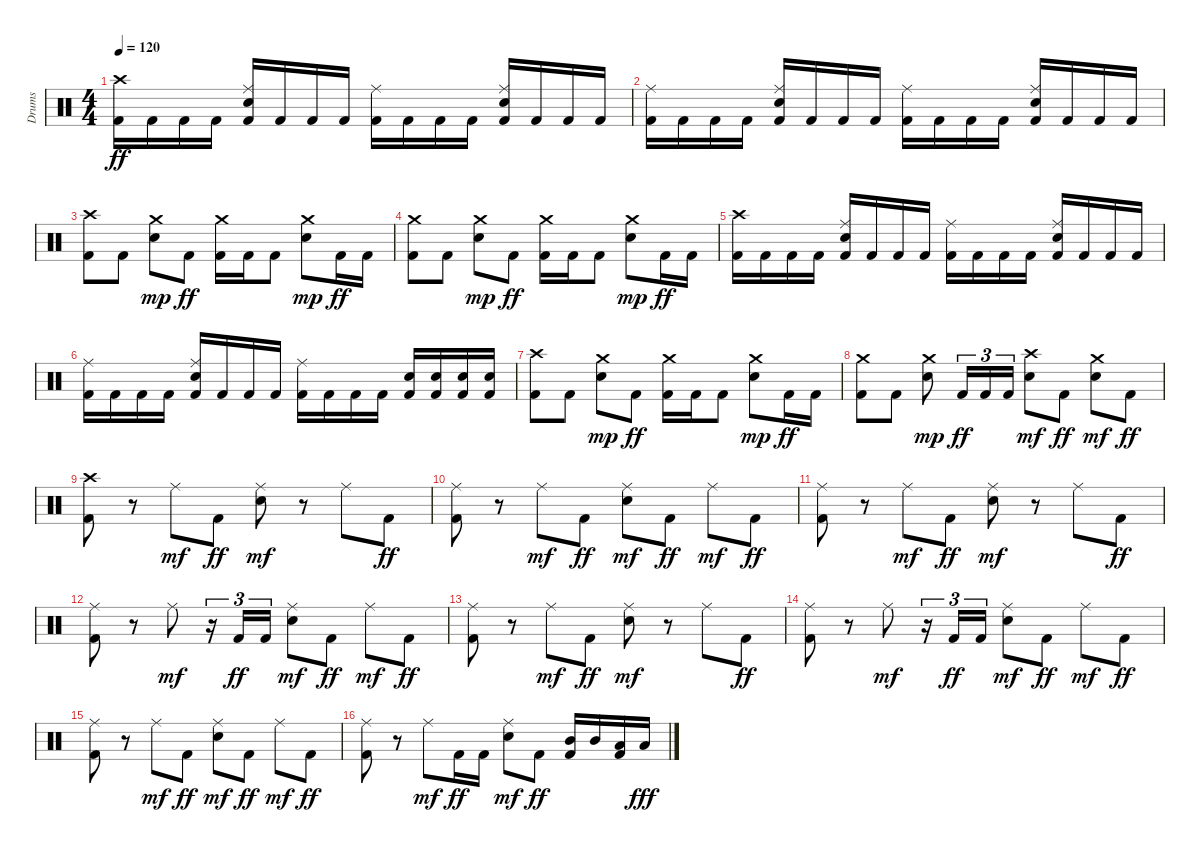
\track ("Drums" "Drums") {instrument percussion}
\staff {score}
\articulation defaults
\ts (4 4)
\tempo 120
\clef neutral
\ks c
("Crash high (hit)" "Kick (hit) 2").16{dy ff} "Kick (hit) 2".16 "Kick (hit) 2".16 "Kick (hit) 2".16 ("Ride (middle)" "Electric Snare (hit)" "Kick (hit) 2").16 "Kick (hit) 2".16 "Kick (hit) 2".16 "Kick (hit) 2".16 ("Ride (middle)" "Kick (hit) 2").16 "Kick (hit) 2".16 "Kick (hit) 2".16 "Kick (hit) 2".16 ("Ride (middle)" "Electric Snare (hit)" "Kick (hit) 2").16 "Kick (hit) 2".16 "Kick (hit) 2".16 "Kick (hit) 2".16 |
("Ride (middle)" "Kick (hit) 2").16 "Kick (hit) 2".16 "Kick (hit) 2".16 "Kick (hit) 2".16 ("Ride (middle)" "Electric Snare (hit)" "Kick (hit) 2").16 "Kick (hit) 2".16 "Kick (hit) 2".16 "Kick (hit) 2".16 ("Ride (middle)" "Kick (hit) 2").16 "Kick (hit) 2".16 "Kick (hit) 2".16 "Kick (hit) 2".16 ("Ride (middle)" "Electric Snare (hit)" "Kick (hit) 2").16 "Kick (hit) 2".16 "Kick (hit) 2".16 "Kick (hit) 2".16 |
("Crash high (hit)" "Kick (hit) 2").8 "Kick (hit) 2".8 ("Crash medium (hit)" "Electric Snare (hit)").8{dy mp} "Kick (hit) 2".8{dy ff} ("Crash medium (hit)" "Kick (hit) 2").16 "Kick (hit) 2".16 "Kick (hit) 2".8 ("Crash medium (hit)" "Electric Snare (hit)").8{dy mp} "Kick (hit) 2".16{dy ff} "Kick (hit) 2".16 |
("Crash medium (hit)" "Kick (hit) 2").8 "Kick (hit) 2".8 ("Crash medium (hit)" "Electric Snare (hit)").8{dy mp} "Kick (hit) 2".8{dy ff} ("Crash medium (hit)" "Kick (hit) 2").16 "Kick (hit) 2".16 "Kick (hit) 2".8 ("Crash medium (hit)" "Electric Snare (hit)").8{dy mp} "Kick (hit) 2".16{dy ff} "Kick (hit) 2".16 |
("Crash high (hit)" "Kick (hit) 2").16 "Kick (hit) 2".16 "Kick (hit) 2".16 "Kick (hit) 2".16 ("Ride (middle)" "Electric Snare (hit)" "Kick (hit) 2").16 "Kick (hit) 2".16 "Kick (hit) 2".16 "Kick (hit) 2".16 ("Ride (middle)" "Kick (hit) 2").16 "Kick (hit) 2".16 "Kick (hit) 2".16 "Kick (hit) 2".16 ("Ride (middle)" "Electric Snare (hit)" "Kick (hit) 2").16 "Kick (hit) 2".16 "Kick (hit) 2".16 "Kick (hit) 2".16 |
("Ride (middle)" "Kick (hit) 2").16 "Kick (hit) 2".16 "Kick (hit) 2".16 "Kick (hit) 2".16 ("Ride (middle)" "Electric Snare (hit)" "Kick (hit) 2").16 "Kick (hit) 2".16 "Kick (hit) 2".16 "Kick (hit) 2".16 ("Ride (middle)" "Kick (hit) 2").16 "Kick (hit) 2".16 "Kick (hit) 2".16 "Kick (hit) 2".16 ("Electric Snare (hit)" "Kick (hit) 2").16 ("Electric Snare (hit)" "Kick (hit) 2").16 ("Electric Snare (hit)" "Kick (hit) 2").16 ("Electric Snare (hit)" "Kick (hit) 2").16 |
("Crash high (hit)" "Kick (hit) 2").8 "Kick (hit) 2".8 ("Crash medium (hit)" "Electric Snare (hit)").8{dy mp} "Kick (hit) 2".8{dy ff} ("Crash medium (hit)" "Kick (hit) 2").16 "Kick (hit) 2".16 "Kick (hit) 2".8 ("Crash medium (hit)" "Electric Snare (hit)").8{dy mp} "Kick (hit) 2".16{dy ff} "Kick (hit) 2".16 |
("Crash medium (hit)" "Kick (hit) 2").8 "Kick (hit) 2".8 ("Crash medium (hit)" "Electric Snare (hit)").8{dy mp} "Kick (hit) 2".16{tu (3 2) dy ff} "Kick (hit) 2".16{tu (3 2)} "Kick (hit) 2".16{tu (3 2)} ("Crash high (hit)" "Electric Snare (hit)").8{dy mf} "Kick (hit) 2".8{dy ff} ("Crash medium (hit)" "Electric Snare (hit)").8{dy mf} "Kick (hit) 2".8{dy ff} |
\section ("" "")
("Crash high (hit)" "Kick (hit) 2").8 r.8 "Ride (middle)".8{dy mf} "Kick (hit) 2".8{dy ff} ("Ride (middle)" "Electric Snare (hit)").8{dy mf} r.8 "Ride (middle)".8 "Kick (hit) 2".8{dy ff} |
("Ride (middle)" "Kick (hit) 2").8 r.8 "Ride (middle)".8{dy mf} "Kick (hit) 2".8{dy ff} ("Ride (middle)" "Electric Snare (hit)").8{dy mf} "Kick (hit) 2".8{dy ff} "Ride (middle)".8{dy mf} "Kick (hit) 2".8{dy ff} |
("Ride (middle)" "Kick (hit) 2").8 r.8 "Ride (middle)".8{dy mf} "Kick (hit) 2".8{dy ff} ("Ride (middle)" "Electric Snare (hit)").8{dy mf} r.8 "Ride (middle)".8 "Kick (hit) 2".8{dy ff} |
("Ride (middle)" "Kick (hit) 2").8 r.8 "Ride (middle)".8{dy mf} r.16{tu (3 2)} "Kick (hit) 2".16{tu (3 2) dy ff} "Kick (hit) 2".16{tu (3 2)} ("Ride (middle)" "Electric Snare (hit)").8{dy mf} "Kick (hit) 2".8{dy ff} "Ride (middle)".8{dy mf} "Kick (hit) 2".8{dy ff} |
("Ride (middle)" "Kick (hit) 2").8 r.8 "Ride (middle)".8{dy mf} "Kick (hit) 2".8{dy ff} ("Ride (middle)" "Electric Snare (hit)").8{dy mf} r.8 "Ride (middle)".8 "Kick (hit) 2".8{dy ff} |
("Ride (middle)" "Kick (hit) 2").8 r.8 "Ride (middle)".8{dy mf} r.16{tu (3 2)} "Kick (hit) 2".16{tu (3 2) dy ff} "Kick (hit) 2".16{tu (3 2)} ("Ride (middle)" "Electric Snare (hit)").8{dy mf} "Kick (hit) 2".8{dy ff} "Ride (middle)".8{dy mf} "Kick (hit) 2".8{dy ff} |
("Ride (middle)" "Kick (hit) 2").8 r.8 "Ride (middle)".8{dy mf} "Kick (hit) 2".8{dy ff} ("Ride (middle)" "Electric Snare (hit)").8{dy mf} "Kick (hit) 2".8{dy ff} "Ride (middle)".8{dy mf} "Kick (hit) 2".8{dy ff} |
("Ride (middle)" "Kick (hit) 2").8 r.8 "Ride (middle)".8{dy mf} "Kick (hit) 2".16{dy ff} "Kick (hit) 2".16 ("Ride (middle)" "Electric Snare (hit)").8{dy mf} "Kick (hit) 2".8{dy ff} ("Mid Tom (hit)" "Kick (hit) 2").16 "Mid Tom (hit)".16 ("Low Tom (hit)" "Kick (hit) 2").16 "Low Tom (hit)".16{dy fff}
